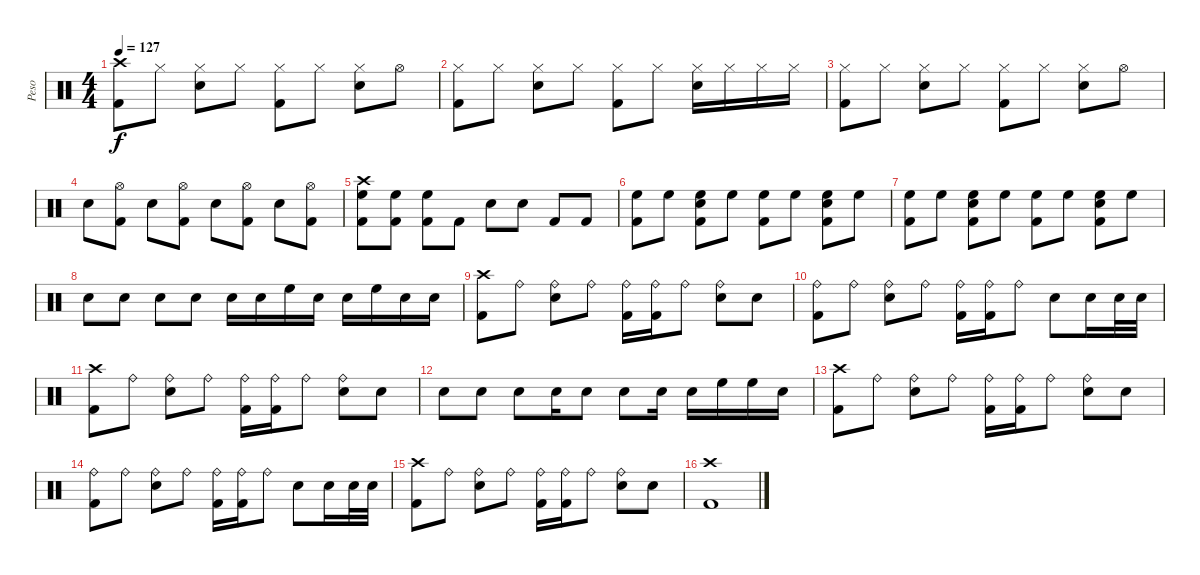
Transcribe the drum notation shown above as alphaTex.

\track ("Peso" "Peso") {instrument percussion}
\staff {score}
\articulation defaults
\ts (4 4)
\tempo 127
\clef neutral
\ks c
("Crash high (hit)" "Kick (hit) 2").8{dy f} "Hi-Hat (closed)".8 ("Hi-Hat (closed)" "Snare (hit) 2").8 "Hi-Hat (closed)".8 ("Hi-Hat (closed)" "Kick (hit) 2").8 "Hi-Hat (closed)".8 ("Hi-Hat (closed)" "Snare (hit) 2").8 "Hi-Hat (open)".8 |
("Hi-Hat (closed)" "Kick (hit) 2").8 "Hi-Hat (closed)".8 ("Hi-Hat (closed)" "Snare (hit) 2").8 "Hi-Hat (closed)".8 ("Hi-Hat (closed)" "Kick (hit) 2").8 "Hi-Hat (closed)".8 ("Hi-Hat (closed)" "Snare (hit) 2").16 "Hi-Hat (closed)".16 "Hi-Hat (closed)".16 "Hi-Hat (closed)".16 |
("Hi-Hat (closed)" "Kick (hit) 2").8 "Hi-Hat (closed)".8 ("Hi-Hat (closed)" "Snare (hit) 2").8 "Hi-Hat (closed)".8 ("Hi-Hat (closed)" "Kick (hit) 2").8 "Hi-Hat (closed)".8 ("Hi-Hat (closed)" "Snare (hit) 2").8 "Hi-Hat (open)".8 |
"Snare (hit) 2".8 ("Hi-Hat (open)" "Kick (hit) 2").8 "Snare (hit) 2".8 ("Hi-Hat (open)" "Kick (hit) 2").8 "Snare (hit) 2".8 ("Hi-Hat (open)" "Kick (hit) 2").8 "Snare (hit) 2".8 ("Hi-Hat (open)" "Kick (hit) 2").8 |
("Crash high (hit)" "High Floor Tom (hit)" "Kick (hit) 2").8 ("High Floor Tom (hit)" "Kick (hit) 2").8 ("High Floor Tom (hit)" "Kick (hit) 2").8 "Kick (hit) 2".8 "Snare (hit) 2".8 "Snare (hit) 2".8 "Kick (hit) 2".8 "Kick (hit) 2".8 |
("High Floor Tom (hit)" "Kick (hit) 2").8 "High Floor Tom (hit)".8 ("High Floor Tom (hit)" "Snare (hit) 2" "Kick (hit) 2").8 "High Floor Tom (hit)".8 ("High Floor Tom (hit)" "Kick (hit) 2").8 "High Floor Tom (hit)".8 ("High Floor Tom (hit)" "Snare (hit) 2" "Kick (hit) 2").8 "High Floor Tom (hit)".8 |
("High Floor Tom (hit)" "Kick (hit) 2").8 "High Floor Tom (hit)".8 ("High Floor Tom (hit)" "Snare (hit) 2" "Kick (hit) 2").8 "High Floor Tom (hit)".8 ("High Floor Tom (hit)" "Kick (hit) 2").8 "High Floor Tom (hit)".8 ("High Floor Tom (hit)" "Snare (hit) 2" "Kick (hit) 2").8 "High Floor Tom (hit)".8 |
"Snare (hit) 2".8 "Snare (hit) 2".8 "Snare (hit) 2".8 "Snare (hit) 2".8 "Snare (hit) 2".16 "Snare (hit) 2".16 "High Floor Tom (hit)".16 "Snare (hit) 2".16 "Snare (hit) 2".16 "High Floor Tom (hit)".16 "Snare (hit) 2".16 "Snare (hit) 2".16 |
("Crash high (hit)" "Kick (hit) 2").8 "Ride (bell)"{x}.8 ("Ride (bell)" "Snare (hit) 2").8 "Ride (bell)"{x}.8 ("Ride (bell)" "Kick (hit) 2").16 ("Ride (bell)"{x} "Kick (hit) 2").16 "Ride (bell)"{x}.8 ("Ride (bell)" "Snare (hit) 2").8 "Snare (hit)"{x}.8 |
("Ride (bell)" "Kick (hit) 2").8 "Ride (bell)"{x}.8 ("Ride (bell)" "Snare (hit) 2").8 "Ride (bell)"{x}.8 ("Ride (bell)" "Kick (hit) 2").16 ("Ride (bell)"{x} "Kick (hit) 2").16 "Ride (bell)"{x}.8 "Snare (hit) 2".8 "Snare (hit) 2".16 "Snare (hit) 2".32 "Snare (hit) 2".32 |
("Crash high (hit)" "Kick (hit) 2").8 "Ride (bell)"{x}.8 ("Ride (bell)" "Snare (hit) 2").8 "Ride (bell)"{x}.8 ("Ride (bell)" "Kick (hit) 2").16 ("Ride (bell)"{x} "Kick (hit) 2").16 "Ride (bell)"{x}.8 ("Ride (bell)" "Snare (hit) 2").8 "Snare (hit)"{x}.8 |
"Snare (hit) 2".8 "Snare (hit) 2".8 "Snare (hit)"{x}.8 "Snare (hit) 2".16 "Snare (hit) 2".8 "Snare (hit) 2".8 "Snare (hit) 2".16 "Snare (hit) 2".16 "High Floor Tom (hit)".16 "High Floor Tom (hit)".16 "Snare (hit) 2".16 |
("Crash high (hit)" "Kick (hit) 2").8 "Ride (bell)"{x}.8 ("Ride (bell)" "Snare (hit) 2").8 "Ride (bell)"{x}.8 ("Ride (bell)" "Kick (hit) 2").16 ("Ride (bell)"{x} "Kick (hit) 2").16 "Ride (bell)"{x}.8 ("Ride (bell)" "Snare (hit) 2").8 "Snare (hit)"{x}.8 |
("Ride (bell)" "Kick (hit) 2").8 "Ride (bell)"{x}.8 ("Ride (bell)" "Snare (hit) 2").8 "Ride (bell)"{x}.8 ("Ride (bell)" "Kick (hit) 2").16 ("Ride (bell)"{x} "Kick (hit) 2").16 "Ride (bell)"{x}.8 "Snare (hit) 2".8 "Snare (hit) 2".16 "Snare (hit) 2".32 "Snare (hit) 2".32 |
("Crash high (hit)" "Kick (hit) 2").8 "Ride (bell)"{x}.8 ("Ride (bell)" "Snare (hit) 2").8 "Ride (bell)"{x}.8 ("Ride (bell)" "Kick (hit) 2").16 ("Ride (bell)"{x} "Kick (hit) 2").16 "Ride (bell)"{x}.8 ("Ride (bell)" "Snare (hit) 2").8 "Snare (hit)"{x}.8 |
("Crash high (hit)" "Kick (hit) 2").1
